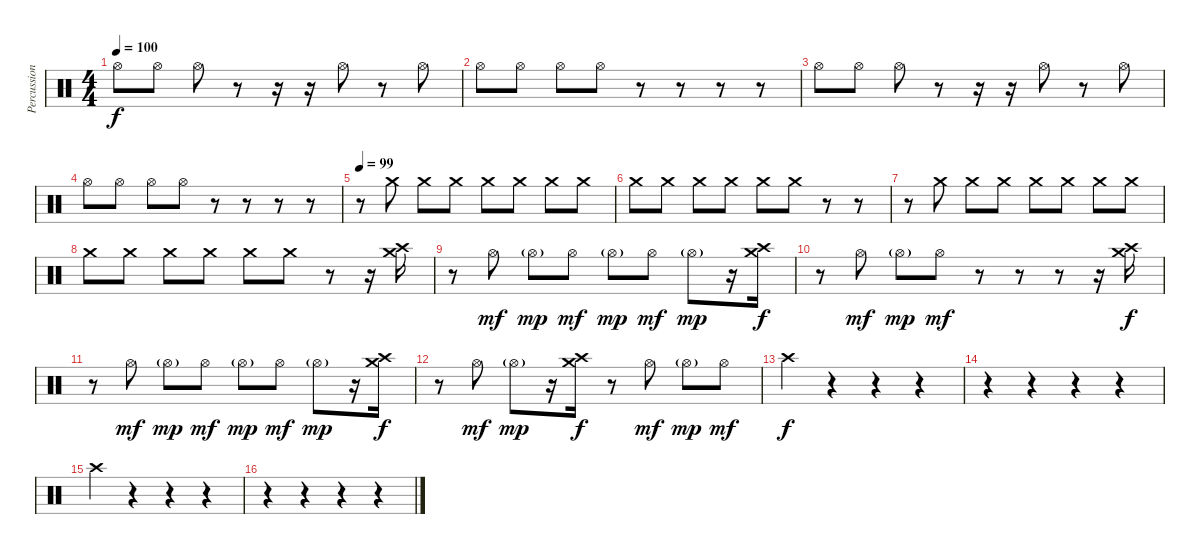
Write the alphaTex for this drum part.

\track ("Percussion2" "Percussion") {instrument percussion}
\staff {score}
\articulation defaults
\ts (4 4)
\tempo 100
\clef neutral
\ks c "Hi-Hat (open)".8{dy f} "Hi-Hat (open)".8 "Hi-Hat (open)".8
r.8 r.16 r.16 "Hi-Hat (open)".8 r.8 "Hi-Hat (open)".8 |
"Hi-Hat (open)".8 "Hi-Hat (open)".8 "Hi-Hat (open)".8 "Hi-Hat (open)".8 r.8 r.8 r.8 r.8 |
"Hi-Hat (open)".8 "Hi-Hat (open)".8 "Hi-Hat (open)".8 r.8 r.16 r.16 "Hi-Hat (open)".8 r.8 "Hi-Hat (open)".8 |
"Hi-Hat (open)".8 "Hi-Hat (open)".8 "Hi-Hat (open)".8 "Hi-Hat (open)".8 r.8 r.8 r.8 r.8 |
\tempo 99
r.8 "Crash medium (hit)".8 "Crash medium (hit)".8 "Crash medium (hit)".8 "Crash medium (hit)".8 "Crash medium (hit)".8 "Crash medium (hit)".8 "Crash medium (hit)".8 |
"Crash medium (hit)".8 "Crash medium (hit)".8 "Crash medium (hit)".8 "Crash medium (hit)".8 "Crash medium (hit)".8 "Crash medium (hit)".8 r.8 r.8 |
r.8 "Crash medium (hit)".8 "Crash medium (hit)".8 "Crash medium (hit)".8 "Crash medium (hit)".8 "Crash medium (hit)".8 "Crash medium (hit)".8 "Crash medium (hit)".8 |
"Crash medium (hit)".8 "Crash medium (hit)".8 "Crash medium (hit)".8 "Crash medium (hit)".8 "Crash medium (hit)".8 "Crash medium (hit)".8 r.8 r.16 ("Crash medium (hit)" "Crash high (hit)").16 |
r.8 "Hi-Hat (open)".8{dy mf} "Hi-Hat (open)"{g}.8{dy mp} "Hi-Hat (open)".8{dy mf} "Hi-Hat (open)"{g}.8{dy mp} "Hi-Hat (open)".8{dy mf} "Hi-Hat (open)"{g}.8{dy mp} r.16 ("Crash medium (hit)" "Crash high (hit)").16{dy f} |
r.8 "Hi-Hat (open)".8{dy mf} "Hi-Hat (open)"{g}.8{dy mp} "Hi-Hat (open)".8{dy mf} r.8 r.8 r.8 r.16 ("Crash medium (hit)" "Crash high (hit)").16{dy f} |
r.8 "Hi-Hat (open)".8{dy mf} "Hi-Hat (open)"{g}.8{dy mp} "Hi-Hat (open)".8{dy mf} "Hi-Hat (open)"{g}.8{dy mp} "Hi-Hat (open)".8{dy mf} "Hi-Hat (open)"{g}.8{dy mp} r.16 ("Crash medium (hit)" "Crash high (hit)").16{dy f} |
r.8 "Hi-Hat (open)".8{dy mf} "Hi-Hat (open)"{g}.8{dy mp} r.16 ("Crash medium (hit)" "Crash high (hit)").16{dy f} r.8 "Hi-Hat (open)".8{dy mf} "Hi-Hat (open)"{g}.8{dy mp} "Hi-Hat (open)".8{dy mf} |
"Crash high (hit)".4{dy f} r.4 r.4 r.4 |
r.4 r.4 r.4 r.4 |
"Crash high (hit)".4 r.4 r.4 r.4 |
r.4 r.4 r.4 r.4
